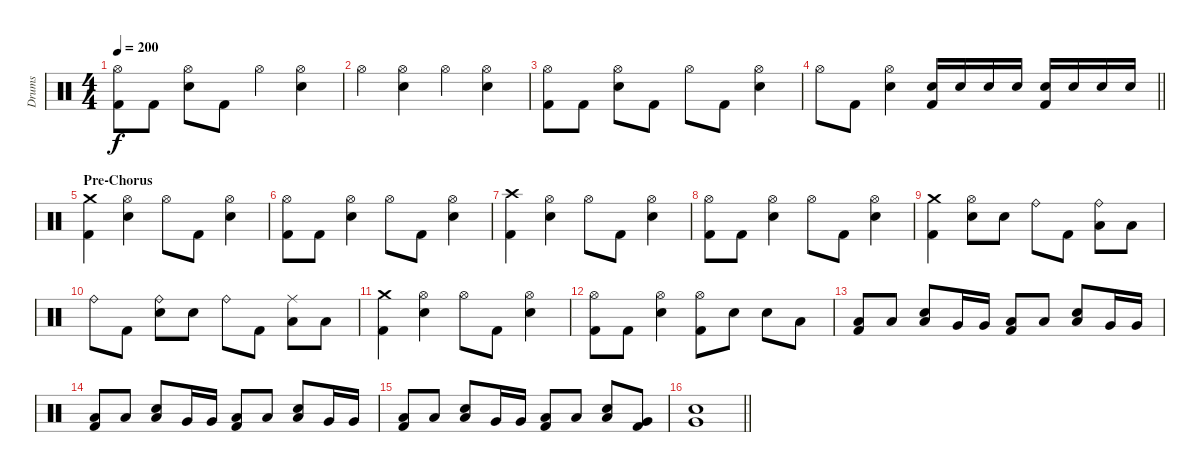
\track ("Drums" "Drums") {instrument percussion}
\staff {score}
\articulation defaults
\ts (4 4)
\tempo 200
\clef neutral
\ks c
("Hi-Hat (open)" "Kick (hit) 2").8{dy f} "Kick (hit) 2".8 ("Hi-Hat (open)" "Electric Snare (hit)").8 "Kick (hit) 2".8 "Hi-Hat (open)".4 ("Hi-Hat (open)" "Electric Snare (hit)").4 |
"Hi-Hat (open)".4 ("Hi-Hat (open)" "Electric Snare (hit)").4 "Hi-Hat (open)".4 ("Hi-Hat (open)" "Electric Snare (hit)").4 |
("Hi-Hat (open)" "Kick (hit) 2").8 "Kick (hit) 2".8 ("Hi-Hat (open)" "Electric Snare (hit)").8 "Kick (hit) 2".8 "Hi-Hat (open)".8 "Kick (hit) 2".8 ("Hi-Hat (open)" "Electric Snare (hit)").4 |
\barLineRight lightlight "Hi-Hat (open)".8 "Kick (hit) 2".8
("Hi-Hat (open)" "Electric Snare (hit)").4 ("Electric Snare (hit)" "Kick (hit) 2").16 "Electric Snare (hit)".16 "Electric Snare (hit)".16 "Electric Snare (hit)".16 ("Electric Snare (hit)" "Kick (hit) 2").16 "Electric Snare (hit)".16 "Electric Snare (hit)".16 "Electric Snare (hit)".16 |
\section ("" "Pre-Chorus")
("Crash medium (hit)" "Kick (hit) 2").4 ("Hi-Hat (open)" "Electric Snare (hit)").4 "Hi-Hat (open)".8 "Kick (hit) 2".8 ("Hi-Hat (open)" "Electric Snare (hit)").4 |
("Hi-Hat (open)" "Kick (hit) 2").8 "Kick (hit) 2".8 ("Hi-Hat (open)" "Electric Snare (hit)").4 "Hi-Hat (open)".8 "Kick (hit) 2".8 ("Hi-Hat (open)" "Electric Snare (hit)").4 |
("Crash high (hit)" "Kick (hit) 2").4 ("Hi-Hat (open)" "Electric Snare (hit)").4 "Hi-Hat (open)".8 "Kick (hit) 2".8 ("Hi-Hat (open)" "Electric Snare (hit)").4 |
("Hi-Hat (open)" "Kick (hit) 2").8 "Kick (hit) 2".8 ("Hi-Hat (open)" "Electric Snare (hit)").4 "Hi-Hat (open)".8 "Kick (hit) 2".8 ("Hi-Hat (open)" "Electric Snare (hit)").4 |
("Crash medium (hit)" "Kick (hit) 2").4 ("Hi-Hat (open)" "Electric Snare (hit)").8 "Electric Snare (hit)".8 "Ride (bell)".8 "Kick (hit) 2".8 ("Ride (bell)" "Low Tom (hit)").8 "Low Tom (hit)".8 |
"Ride (bell)".8 "Kick (hit) 2".8 ("Ride (bell)" "Electric Snare (hit)").8 "Electric Snare (hit)".8 "Ride (bell)".8 "Kick (hit) 2".8 ("Ride (middle)" "Low Tom (hit)").8 "Low Tom (hit)".8 |
("Crash medium (hit)" "Kick (hit) 2").4 ("Hi-Hat (open)" "Electric Snare (hit)").4 "Hi-Hat (open)".8 "Kick (hit) 2".8 ("Hi-Hat (open)" "Electric Snare (hit)").4 |
("Hi-Hat (open)" "Kick (hit) 2").8 "Kick (hit) 2".8 ("Hi-Hat (open)" "Electric Snare (hit)").4 ("Hi-Hat (open)" "Kick (hit) 2").8 "Electric Snare (hit)".8 "Electric Snare (hit)".8 "Low Tom (hit)".8 |
("Low Floor Tom (hit)" "Kick (hit) 2").8 "Low Floor Tom (hit)".8 ("Low Floor Tom (hit)" "Electric Snare (hit)").8 "Very Low Tom (hit)".16 "Very Low Tom (hit)".16 ("Low Floor Tom (hit)" "Kick (hit) 2").8 "Low Floor Tom (hit)".8 ("Low Floor Tom (hit)" "Electric Snare (hit)").8 "Very Low Tom (hit)".16 "Very Low Tom (hit)".16 |
("Low Floor Tom (hit)" "Kick (hit) 2").8 "Low Floor Tom (hit)".8 ("Low Floor Tom (hit)" "Electric Snare (hit)").8 "Very Low Tom (hit)".16 "Very Low Tom (hit)".16 ("Low Floor Tom (hit)" "Kick (hit) 2").8 "Low Floor Tom (hit)".8 ("Low Floor Tom (hit)" "Electric Snare (hit)").8 "Very Low Tom (hit)".16 "Very Low Tom (hit)".16 |
("Low Floor Tom (hit)" "Kick (hit) 2").8 "Low Floor Tom (hit)".8 ("Low Floor Tom (hit)" "Electric Snare (hit)").8 "Very Low Tom (hit)".16 "Very Low Tom (hit)".16 ("Low Floor Tom (hit)" "Kick (hit) 2").8 "Low Floor Tom (hit)".8 ("Low Floor Tom (hit)" "Electric Snare (hit)").8 ("Very Low Tom (hit)" "Kick (hit) 2").8 |
\barLineRight lightlight
("Electric Snare (hit)" "Very Low Tom (hit)").1
